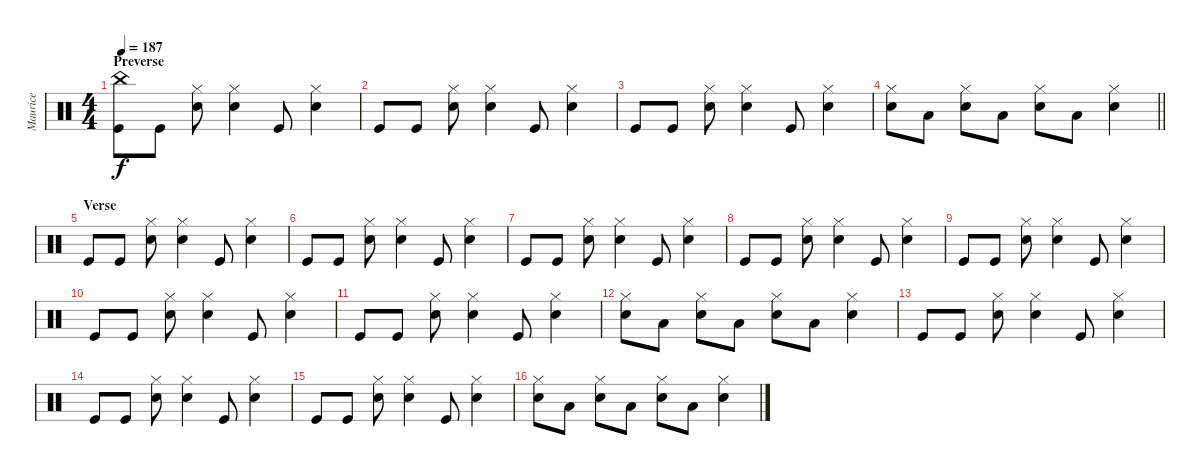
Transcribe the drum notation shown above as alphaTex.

\track ("Maurice" "Maurice") {instrument percussion}
\staff {score}
\articulation defaults
\ts (4 4)
\section ("" "Preverse")
\tempo 187
\clef neutral
\ks c
("China (hit)" "Kick (hit)").8{dy f} "Kick (hit)".8 ("Hi-Hat (closed)" "Snare (hit) 2").8 ("Hi-Hat (closed)" "Snare (hit) 2").4 "Kick (hit)".8 ("Hi-Hat (closed)" "Snare (hit) 2").4 |
"Kick (hit)".8 "Kick (hit)".8 ("Hi-Hat (closed)" "Snare (hit) 2").8 ("Hi-Hat (closed)" "Snare (hit) 2").4 "Kick (hit)".8 ("Hi-Hat (closed)" "Snare (hit) 2").4 |
"Kick (hit)".8 "Kick (hit)".8 ("Hi-Hat (closed)" "Snare (hit) 2").8 ("Hi-Hat (closed)" "Snare (hit) 2").4 "Kick (hit)".8 ("Hi-Hat (closed)" "Snare (hit) 2").4 |
\barLineRight lightlight
("Hi-Hat (closed)" "Snare (hit) 2").8 "Low Tom (hit)".8 ("Hi-Hat (closed)" "Snare (hit) 2").8 "Low Tom (hit)".8 ("Hi-Hat (closed)" "Snare (hit) 2").8 "Low Tom (hit)".8 ("Hi-Hat (closed)" "Snare (hit) 2").4 |
\section ("" "Verse")
"Kick (hit)".8 "Kick (hit)".8 ("Hi-Hat (closed)" "Snare (hit) 2").8 ("Hi-Hat (closed)" "Snare (hit) 2").4 "Kick (hit)".8 ("Hi-Hat (closed)" "Snare (hit) 2").4 |
"Kick (hit)".8 "Kick (hit)".8 ("Hi-Hat (closed)" "Snare (hit) 2").8 ("Hi-Hat (closed)" "Snare (hit) 2").4 "Kick (hit)".8 ("Hi-Hat (closed)" "Snare (hit) 2").4 |
"Kick (hit)".8 "Kick (hit)".8 ("Hi-Hat (closed)" "Snare (hit) 2").8 ("Hi-Hat (closed)" "Snare (hit) 2").4 "Kick (hit)".8 ("Hi-Hat (closed)" "Snare (hit) 2").4 |
"Kick (hit)".8 "Kick (hit)".8 ("Hi-Hat (closed)" "Snare (hit) 2").8 ("Hi-Hat (closed)" "Snare (hit) 2").4 "Kick (hit)".8 ("Hi-Hat (closed)" "Snare (hit) 2").4 |
"Kick (hit)".8 "Kick (hit)".8 ("Hi-Hat (closed)" "Snare (hit) 2").8 ("Hi-Hat (closed)" "Snare (hit) 2").4 "Kick (hit)".8 ("Hi-Hat (closed)" "Snare (hit) 2").4 |
"Kick (hit)".8 "Kick (hit)".8 ("Hi-Hat (closed)" "Snare (hit) 2").8 ("Hi-Hat (closed)" "Snare (hit) 2").4 "Kick (hit)".8 ("Hi-Hat (closed)" "Snare (hit) 2").4 |
"Kick (hit)".8 "Kick (hit)".8 ("Hi-Hat (closed)" "Snare (hit) 2").8 ("Hi-Hat (closed)" "Snare (hit) 2").4 "Kick (hit)".8 ("Hi-Hat (closed)" "Snare (hit) 2").4 |
("Hi-Hat (closed)" "Snare (hit) 2").8 "Low Tom (hit)".8 ("Hi-Hat (closed)" "Snare (hit) 2").8 "Low Tom (hit)".8 ("Hi-Hat (closed)" "Snare (hit) 2").8 "Low Tom (hit)".8 ("Hi-Hat (closed)" "Snare (hit) 2").4 |
"Kick (hit)".8 "Kick (hit)".8 ("Hi-Hat (closed)" "Snare (hit) 2").8 ("Hi-Hat (closed)" "Snare (hit) 2").4 "Kick (hit)".8 ("Hi-Hat (closed)" "Snare (hit) 2").4 |
"Kick (hit)".8 "Kick (hit)".8 ("Hi-Hat (closed)" "Snare (hit) 2").8 ("Hi-Hat (closed)" "Snare (hit) 2").4 "Kick (hit)".8 ("Hi-Hat (closed)" "Snare (hit) 2").4 |
"Kick (hit)".8 "Kick (hit)".8 ("Hi-Hat (closed)" "Snare (hit) 2").8 ("Hi-Hat (closed)" "Snare (hit) 2").4 "Kick (hit)".8 ("Hi-Hat (closed)" "Snare (hit) 2").4 |
("Hi-Hat (closed)" "Snare (hit) 2").8 "Low Tom (hit)".8 ("Hi-Hat (closed)" "Snare (hit) 2").8 "Low Tom (hit)".8 ("Hi-Hat (closed)" "Snare (hit) 2").8 "Low Tom (hit)".8 ("Hi-Hat (closed)" "Snare (hit) 2").4
